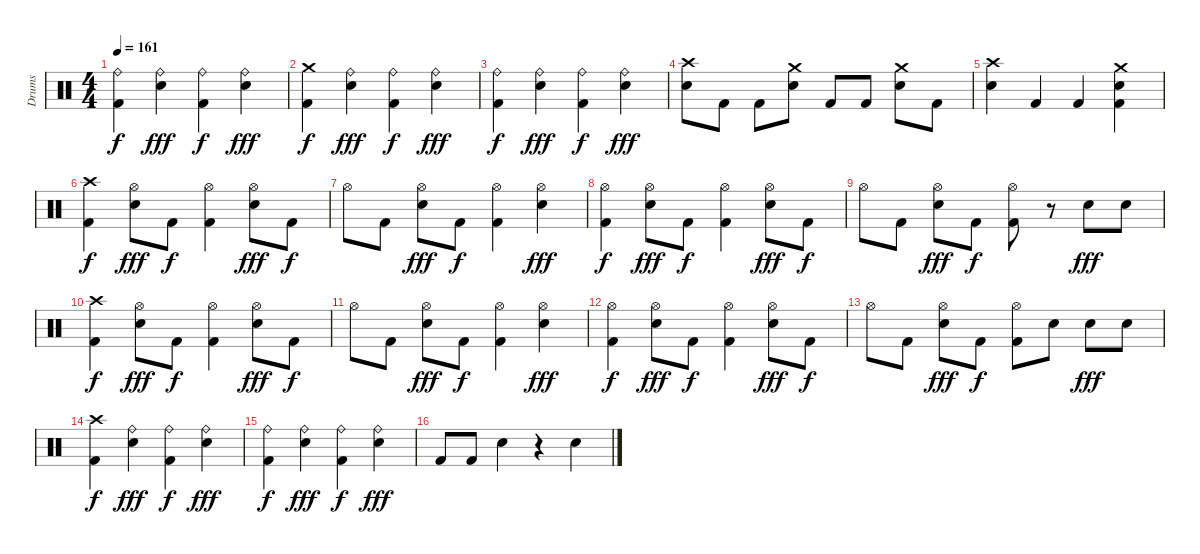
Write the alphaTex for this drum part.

\track ("Drums" "Drums") {instrument percussion}
\staff {score}
\articulation defaults
\ts (4 4)
\tempo 161
\clef neutral
\ks c
("Ride (bell)" "Kick (hit) 2").4{dy f} ("Ride (bell)" "Electric Snare (hit)").4{dy fff} ("Ride (bell)" "Kick (hit) 2").4{dy f} ("Ride (bell)" "Electric Snare (hit)").4{dy fff} |
("Crash medium (hit)" "Kick (hit) 2").4{dy f} ("Ride (bell)" "Electric Snare (hit)").4{dy fff} ("Ride (bell)" "Kick (hit) 2").4{dy f} ("Ride (bell)" "Electric Snare (hit)").4{dy fff} |
("Ride (bell)" "Kick (hit) 2").4{dy f} ("Ride (bell)" "Electric Snare (hit)").4{dy fff} ("Ride (bell)" "Kick (hit) 2").4{dy f} ("Ride (bell)" "Electric Snare (hit)").4{dy fff} |
("Crash high (hit)" "Electric Snare (hit)").8 "Kick (hit) 2".8 "Kick (hit) 2".8 ("Crash medium (hit)" "Electric Snare (hit)").8 "Kick (hit) 2".8 "Kick (hit) 2".8 ("Crash medium (hit)" "Electric Snare (hit)").8 "Kick (hit) 2".8 |
("Crash high (hit)" "Electric Snare (hit)").4 "Kick (hit) 2".4 "Kick (hit) 2".4 ("Crash medium (hit)" "Electric Snare (hit)" "Kick (hit) 2").4 |
("Crash high (hit)" "Kick (hit) 2").4{dy f} ("Hi-Hat (open)" "Electric Snare (hit)").8{dy fff} "Kick (hit) 2".8{dy f} ("Hi-Hat (open)" "Kick (hit) 2").4 ("Hi-Hat (open)" "Electric Snare (hit)").8{dy fff} "Kick (hit) 2".8{dy f} |
"Hi-Hat (open)".8 "Kick (hit) 2".8 ("Hi-Hat (open)" "Electric Snare (hit)").8{dy fff} "Kick (hit) 2".8{dy f} ("Hi-Hat (open)" "Kick (hit) 2").4 ("Hi-Hat (open)" "Electric Snare (hit)").4{dy fff} |
("Hi-Hat (open)" "Kick (hit) 2").4{dy f} ("Hi-Hat (open)" "Electric Snare (hit)").8{dy fff} "Kick (hit) 2".8{dy f} ("Hi-Hat (open)" "Kick (hit) 2").4 ("Hi-Hat (open)" "Electric Snare (hit)").8{dy fff} "Kick (hit) 2".8{dy f} |
"Hi-Hat (open)".8 "Kick (hit) 2".8 ("Hi-Hat (open)" "Electric Snare (hit)").8{dy fff} "Kick (hit) 2".8{dy f} ("Hi-Hat (open)" "Kick (hit) 2").8 r.8 "Electric Snare (hit)".8{dy fff} "Electric Snare (hit)".8 |
("Crash high (hit)" "Kick (hit) 2").4{dy f} ("Hi-Hat (open)" "Electric Snare (hit)").8{dy fff} "Kick (hit) 2".8{dy f} ("Hi-Hat (open)" "Kick (hit) 2").4 ("Hi-Hat (open)" "Electric Snare (hit)").8{dy fff} "Kick (hit) 2".8{dy f} |
"Hi-Hat (open)".8 "Kick (hit) 2".8 ("Hi-Hat (open)" "Electric Snare (hit)").8{dy fff} "Kick (hit) 2".8{dy f} ("Hi-Hat (open)" "Kick (hit) 2").4 ("Hi-Hat (open)" "Electric Snare (hit)").4{dy fff} |
("Hi-Hat (open)" "Kick (hit) 2").4{dy f} ("Hi-Hat (open)" "Electric Snare (hit)").8{dy fff} "Kick (hit) 2".8{dy f} ("Hi-Hat (open)" "Kick (hit) 2").4 ("Hi-Hat (open)" "Electric Snare (hit)").8{dy fff} "Kick (hit) 2".8{dy f} |
"Hi-Hat (open)".8 "Kick (hit) 2".8 ("Hi-Hat (open)" "Electric Snare (hit)").8{dy fff} "Kick (hit) 2".8{dy f} ("Hi-Hat (open)" "Kick (hit) 2").8 "Electric Snare (hit)".8 "Electric Snare (hit)".8{dy fff} "Electric Snare (hit)".8 |
("Crash high (hit)" "Kick (hit) 2").4{dy f} ("Ride (bell)" "Electric Snare (hit)").4{dy fff} ("Ride (bell)" "Kick (hit) 2").4{dy f} ("Ride (bell)" "Electric Snare (hit)").4{dy fff} |
("Ride (bell)" "Kick (hit) 2").4{dy f} ("Ride (bell)" "Electric Snare (hit)").4{dy fff} ("Ride (bell)" "Kick (hit) 2").4{dy f} ("Ride (bell)" "Electric Snare (hit)").4{dy fff} |
"Kick (hit) 2".8 "Kick (hit) 2".8 "Electric Snare (hit)".4 r.4 "Electric Snare (hit)".4
